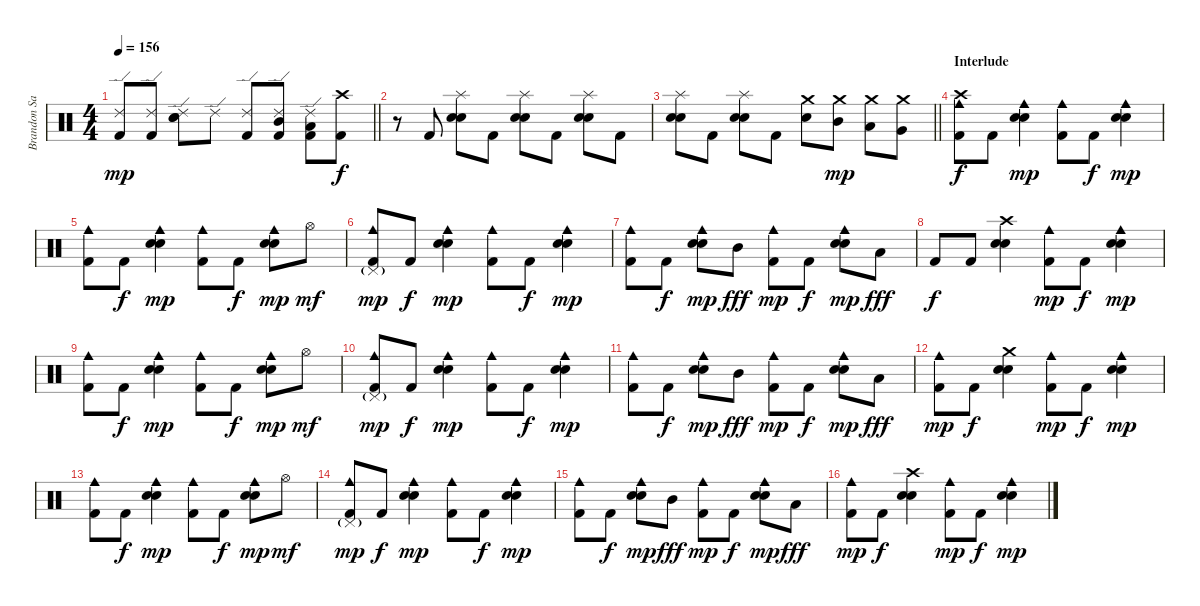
\track ("Brandon Saller" "Brandon Sa") {instrument percussion}
\staff {score}
\articulation defaults
\ts (4 4)
\tempo 156
\clef neutral
\barLineRight lightlight
\ks c
("Ride (edge) 2" "Kick (hit) 2").8{dy mp} ("Ride (edge) 2" "Kick (hit) 2").8 ("Ride (edge) 2" "Snare (hit) 2" "Electric Snare (hit)").8 "Ride (edge) 2".8 ("Ride (edge) 2" "Kick (hit) 2").8 ("Ride (edge) 2" "Mid Tom (hit)" "Kick (hit) 2").8 ("Ride (edge) 2" "Low Tom (hit)" "Kick (hit) 2").8 ("Crash high (hit)" "Kick (hit) 2").8{dy f} |
r.8 "Kick (hit) 2".8 ("Splash (hit)" "Snare (hit) 2" "Electric Snare (hit)").8 "Kick (hit) 2".8 ("Splash (hit)" "Snare (hit) 2" "Electric Snare (hit)").8 "Kick (hit) 2".8 ("Splash (hit)" "Snare (hit) 2" "Electric Snare (hit)").8 "Kick (hit) 2".8 |
\barLineRight lightlight
("Splash (hit)" "Snare (hit) 2" "Electric Snare (hit)").8 "Kick (hit) 2".8 ("Splash (hit)" "Snare (hit) 2" "Electric Snare (hit)").8 "Kick (hit) 2".8 ("Crash medium (hit)" "Electric Snare (hit)").8 ("Crash medium (hit)" "Mid Tom (hit)").8{dy mp} ("Crash medium (hit)" "Low Tom (hit)").8 ("Crash medium (hit)" "Very Low Tom (hit)").8 |
\section ("" "Interlude")
("Crash high (hit)" "Cowbell medium (hit)" "Kick (hit) 2").8{dy f} "Kick (hit) 2".8 ("Cowbell medium (hit)" "Snare (hit) 2" "Electric Snare (hit)").4{dy mp} ("Cowbell medium (hit)" "Kick (hit) 2").8 "Kick (hit) 2".8{dy f} ("Cowbell medium (hit)" "Snare (hit) 2" "Electric Snare (hit)").4{dy mp} |
("Cowbell medium (hit)" "Kick (hit) 2").8 "Kick (hit) 2".8{dy f} ("Cowbell medium (hit)" "Snare (hit) 2" "Electric Snare (hit)").4{dy mp} ("Cowbell medium (hit)" "Kick (hit) 2").8 "Kick (hit) 2".8{dy f} ("Cowbell medium (hit)" "Snare (hit) 2" "Electric Snare (hit)").8{dy mp} "Hi-Hat (open)".8{dy mf} |
("Cowbell medium (hit)" "Pedal Hi-Hat (hit)"{g} "Kick (hit) 2").8{dy mp} "Kick (hit) 2".8{dy f} ("Cowbell medium (hit)" "Snare (hit) 2" "Electric Snare (hit)").4{dy mp} ("Cowbell medium (hit)" "Kick (hit) 2").8 "Kick (hit) 2".8{dy f} ("Cowbell medium (hit)" "Snare (hit) 2" "Electric Snare (hit)").4{dy mp} |
("Cowbell medium (hit)" "Kick (hit) 2").8 "Kick (hit) 2".8{dy f} ("Cowbell medium (hit)" "Snare (hit) 2" "Electric Snare (hit)").8{dy mp} "Mid Tom (hit)".8{dy fff} ("Cowbell medium (hit)" "Kick (hit) 2").8{dy mp} "Kick (hit) 2".8{dy f} ("Cowbell medium (hit)" "Snare (hit) 2" "Electric Snare (hit)").8{dy mp} "Low Tom (hit)".8{dy fff} |
"Kick (hit) 2".8{dy f} "Kick (hit) 2".8 ("Crash high (hit)" "Snare (hit) 2" "Electric Snare (hit)").4 ("Cowbell medium (hit)" "Kick (hit) 2").8{dy mp} "Kick (hit) 2".8{dy f} ("Cowbell medium (hit)" "Snare (hit) 2" "Electric Snare (hit)").4{dy mp} |
("Cowbell medium (hit)" "Kick (hit) 2").8 "Kick (hit) 2".8{dy f} ("Cowbell medium (hit)" "Snare (hit) 2" "Electric Snare (hit)").4{dy mp} ("Cowbell medium (hit)" "Kick (hit) 2").8 "Kick (hit) 2".8{dy f} ("Cowbell medium (hit)" "Snare (hit) 2" "Electric Snare (hit)").8{dy mp} "Hi-Hat (open)".8{dy mf} |
("Cowbell medium (hit)" "Pedal Hi-Hat (hit)"{g} "Kick (hit) 2").8{dy mp} "Kick (hit) 2".8{dy f} ("Cowbell medium (hit)" "Snare (hit) 2" "Electric Snare (hit)").4{dy mp} ("Cowbell medium (hit)" "Kick (hit) 2").8 "Kick (hit) 2".8{dy f} ("Cowbell medium (hit)" "Snare (hit) 2" "Electric Snare (hit)").4{dy mp} |
("Cowbell medium (hit)" "Kick (hit) 2").8 "Kick (hit) 2".8{dy f} ("Cowbell medium (hit)" "Snare (hit) 2" "Electric Snare (hit)").8{dy mp} "Mid Tom (hit)".8{dy fff} ("Cowbell medium (hit)" "Kick (hit) 2").8{dy mp} "Kick (hit) 2".8{dy f} ("Cowbell medium (hit)" "Snare (hit) 2" "Electric Snare (hit)").8{dy mp} "Low Tom (hit)".8{dy fff} |
("Cowbell medium (hit)" "Kick (hit) 2").8{dy mp} "Kick (hit) 2".8{dy f} ("Crash medium (hit)" "Snare (hit) 2" "Electric Snare (hit)").4 ("Cowbell medium (hit)" "Kick (hit) 2").8{dy mp} "Kick (hit) 2".8{dy f} ("Cowbell medium (hit)" "Snare (hit) 2" "Electric Snare (hit)").4{dy mp} |
("Cowbell medium (hit)" "Kick (hit) 2").8 "Kick (hit) 2".8{dy f} ("Cowbell medium (hit)" "Snare (hit) 2" "Electric Snare (hit)").4{dy mp} ("Cowbell medium (hit)" "Kick (hit) 2").8 "Kick (hit) 2".8{dy f} ("Cowbell medium (hit)" "Snare (hit) 2" "Electric Snare (hit)").8{dy mp} "Hi-Hat (open)".8{dy mf} |
("Cowbell medium (hit)" "Pedal Hi-Hat (hit)"{g} "Kick (hit) 2").8{dy mp} "Kick (hit) 2".8{dy f} ("Cowbell medium (hit)" "Snare (hit) 2" "Electric Snare (hit)").4{dy mp} ("Cowbell medium (hit)" "Kick (hit) 2").8 "Kick (hit) 2".8{dy f} ("Cowbell medium (hit)" "Snare (hit) 2" "Electric Snare (hit)").4{dy mp} |
("Cowbell medium (hit)" "Kick (hit) 2").8 "Kick (hit) 2".8{dy f} ("Cowbell medium (hit)" "Snare (hit) 2" "Electric Snare (hit)").8{dy mp} "Mid Tom (hit)".8{dy fff} ("Cowbell medium (hit)" "Kick (hit) 2").8{dy mp} "Kick (hit) 2".8{dy f} ("Cowbell medium (hit)" "Snare (hit) 2" "Electric Snare (hit)").8{dy mp} "Low Tom (hit)".8{dy fff} |
("Cowbell medium (hit)" "Kick (hit) 2").8{dy mp} "Kick (hit) 2".8{dy f} ("Crash high (hit)" "Snare (hit) 2" "Electric Snare (hit)").4 ("Cowbell medium (hit)" "Kick (hit) 2").8{dy mp} "Kick (hit) 2".8{dy f} ("Cowbell medium (hit)" "Snare (hit) 2" "Electric Snare (hit)").4{dy mp}
